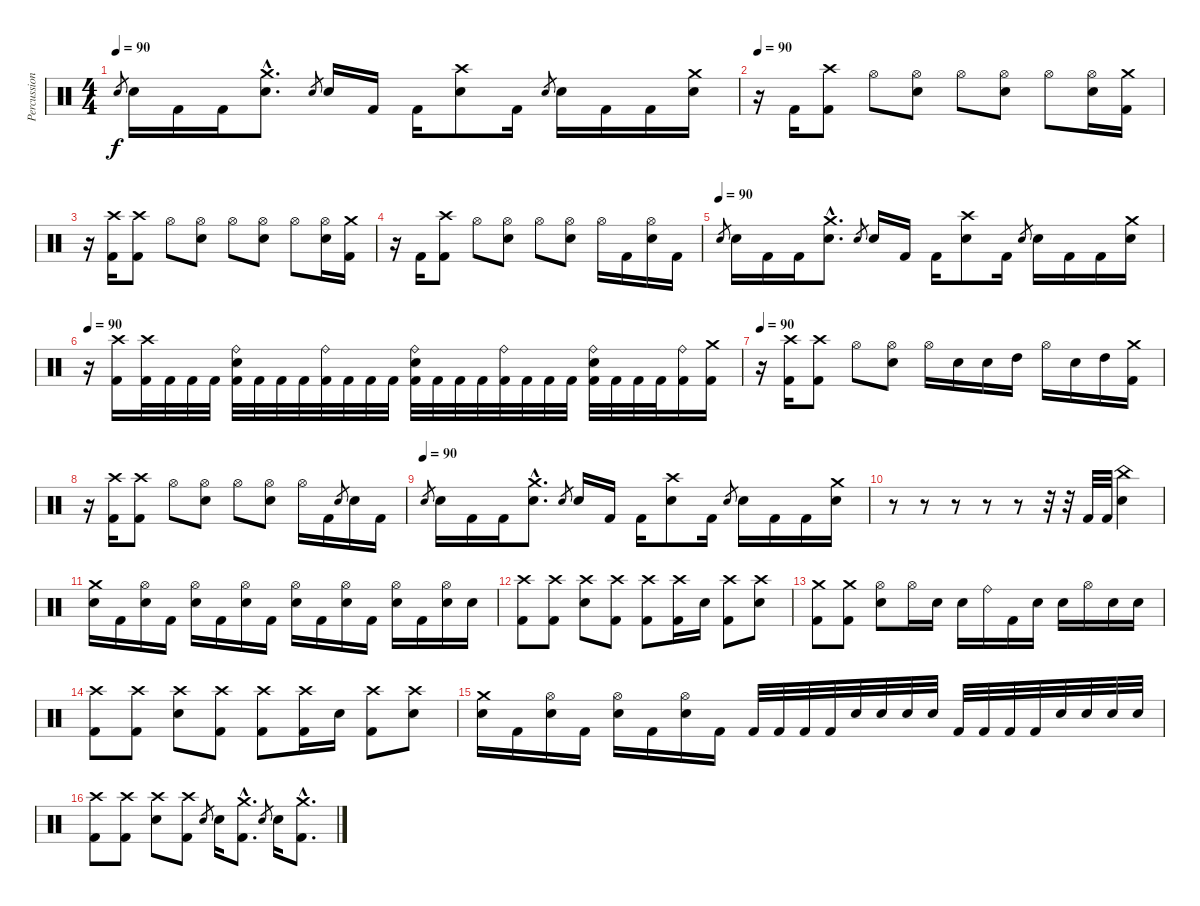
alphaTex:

\track ("Percussion" "Percussion") {instrument percussion}
\staff {score}
\articulation defaults
\ts (4 4)
\tempo 90
\clef neutral
\ks c "Electric Snare (hit)".8{gr dy f} "Electric Snare (hit)".16 "Kick (hit) 2".16 "Kick (hit) 2".16
("Crash medium (hit)"{hac} "Electric Snare (hit)"{hac}).8{d} "Electric Snare (hit)".8{gr} "Electric Snare (hit)".16 "Kick (hit) 2".16 "Kick (hit) 2".16 ("Crash high (hit)" "Electric Snare (hit)").8 "Kick (hit) 2".16 "Electric Snare (hit)".8{gr} "Electric Snare (hit)".16 "Kick (hit) 2".16 "Kick (hit) 2".16 ("Crash medium (hit)" "Electric Snare (hit)").16 |
\tempo 90
r.16 "Kick (hit) 2".16 ("Crash high (hit)" "Kick (hit) 2").8 "Hi-Hat (open)".8 ("Hi-Hat (open)" "Electric Snare (hit)").8 "Hi-Hat (open)".8 ("Hi-Hat (open)" "Electric Snare (hit)").8 "Hi-Hat (open)".8 ("Hi-Hat (open)" "Electric Snare (hit)").16 ("Crash medium (hit)" "Kick (hit) 2").16 |
r.16 ("Crash high (hit)" "Kick (hit) 2").16 ("Crash high (hit)" "Kick (hit) 2").8 "Hi-Hat (open)".8 ("Hi-Hat (open)" "Electric Snare (hit)").8 "Hi-Hat (open)".8 ("Hi-Hat (open)" "Electric Snare (hit)").8 "Hi-Hat (open)".8 ("Hi-Hat (open)" "Electric Snare (hit)").16 ("Crash medium (hit)" "Kick (hit) 2").16 |
r.16 "Kick (hit) 2".16 ("Crash high (hit)" "Kick (hit) 2").8 "Hi-Hat (open)".8 ("Hi-Hat (open)" "Electric Snare (hit)").8 "Hi-Hat (open)".8 ("Hi-Hat (open)" "Electric Snare (hit)").8 "Hi-Hat (open)".16 "Kick (hit) 2".16 ("Hi-Hat (open)" "Electric Snare (hit)").16 "Kick (hit) 2".16 |
\tempo (90)
"Electric Snare (hit)".8{gr} "Electric Snare (hit)".16 "Kick (hit) 2".16 "Kick (hit) 2".16 ("Crash medium (hit)"{hac} "Electric Snare (hit)"{hac}).8{d} "Electric Snare (hit)".8{gr} "Electric Snare (hit)".16 "Kick (hit) 2".16 "Kick (hit) 2".16 ("Crash high (hit)" "Electric Snare (hit)").8 "Kick (hit) 2".16 "Electric Snare (hit)".8{gr} "Electric Snare (hit)".16 "Kick (hit) 2".16 "Kick (hit) 2".16 ("Crash medium (hit)" "Electric Snare (hit)").16 |
\tempo 90
r.16 ("Crash high (hit)" "Kick (hit) 2").16 ("Crash high (hit)" "Kick (hit) 2").32 "Kick (hit) 2".32 "Kick (hit) 2".32 "Kick (hit) 2".32 ("Ride (bell)" "Electric Snare (hit)" "Kick (hit) 2").32 "Kick (hit) 2".32 "Kick (hit) 2".32 "Kick (hit) 2".32 ("Ride (bell)" "Kick (hit) 2").32 "Kick (hit) 2".32 "Kick (hit) 2".32 "Kick (hit) 2".32 ("Ride (bell)" "Electric Snare (hit)" "Kick (hit) 2").32 "Kick (hit) 2".32 "Kick (hit) 2".32 "Kick (hit) 2".32 ("Ride (bell)" "Kick (hit) 2").32 "Kick (hit) 2".32 "Kick (hit) 2".32 "Kick (hit) 2".32 ("Ride (bell)" "Electric Snare (hit)" "Kick (hit) 2").32 "Kick (hit) 2".32 "Kick (hit) 2".32 "Kick (hit) 2".32 ("Ride (bell)" "Kick (hit) 2").16 ("Crash medium (hit)" "Kick (hit) 2").16 |
\tempo 90
r.16 ("Crash high (hit)" "Kick (hit) 2").16 ("Crash high (hit)" "Kick (hit) 2").8 "Hi-Hat (open)".8 ("Hi-Hat (open)" "Electric Snare (hit)").8 "Hi-Hat (open)".16 "Electric Snare (hit)".16 "Electric Snare (hit)".16 "High Tom (hit)".16 "Hi-Hat (open)".16 "Electric Snare (hit)".16 "High Tom (hit)".16 ("Crash medium (hit)" "Kick (hit) 2").16 |
r.16 ("Crash high (hit)" "Kick (hit) 2").16 ("Crash high (hit)" "Kick (hit) 2").8 "Hi-Hat (open)".8 ("Hi-Hat (open)" "Electric Snare (hit)").8 "Hi-Hat (open)".8 ("Hi-Hat (open)" "Electric Snare (hit)").8 "Hi-Hat (open)".16 "Kick (hit) 2".16 "Electric Snare (hit)".8{gr} "Electric Snare (hit)".16 "Kick (hit) 2".16 |
\tempo (90)
"Electric Snare (hit)".8{gr} "Electric Snare (hit)".16 "Kick (hit) 2".16 "Kick (hit) 2".16 ("Crash medium (hit)"{hac} "Electric Snare (hit)"{hac}).8{d} "Electric Snare (hit)".8{gr} "Electric Snare (hit)".16 "Kick (hit) 2".16 "Kick (hit) 2".16 ("Crash high (hit)" "Electric Snare (hit)").8 "Kick (hit) 2".16 "Electric Snare (hit)".8{gr} "Electric Snare (hit)".16 "Kick (hit) 2".16 "Kick (hit) 2".16 ("Crash medium (hit)" "Electric Snare (hit)").16 |
r.8 r.8 r.8 r.8 r.8 r.32 r.32 "Kick (hit) 2".32 "Kick (hit) 2".32 ("China (hit)" "Electric Snare (hit)").4 |
("Crash medium (hit)" "Electric Snare (hit)").16 "Kick (hit) 2".16 ("Hi-Hat (open)" "Electric Snare (hit)").16 "Kick (hit) 2".16 ("Hi-Hat (open)" "Electric Snare (hit)").16 "Kick (hit) 2".16 ("Hi-Hat (open)" "Electric Snare (hit)").16 "Kick (hit) 2".16 ("Hi-Hat (open)" "Electric Snare (hit)").16 "Kick (hit) 2".16 ("Hi-Hat (open)" "Electric Snare (hit)").16 "Kick (hit) 2".16 ("Hi-Hat (open)" "Electric Snare (hit)").16 "Kick (hit) 2".16 ("Hi-Hat (open)" "Electric Snare (hit)").16 "Electric Snare (hit)".16 |
("Crash high (hit)" "Kick (hit) 2").8 ("Crash high (hit)" "Kick (hit) 2").8 ("Crash high (hit)" "Electric Snare (hit)").8 ("Crash high (hit)" "Kick (hit) 2").8 ("Crash high (hit)" "Kick (hit) 2").8 ("Crash high (hit)" "Kick (hit) 2").16 "Electric Snare (hit)".16 ("Crash high (hit)" "Kick (hit) 2").8 ("Crash high (hit)" "Electric Snare (hit)").8 |
("Crash medium (hit)" "Kick (hit) 2").8 ("Crash medium (hit)" "Kick (hit) 2").8 ("Hi-Hat (open)" "Electric Snare (hit)").8 "Hi-Hat (open)".16 "Electric Snare (hit)".16 "Electric Snare (hit)".16 "Ride (bell)".16 "Kick (hit) 2".16 "Electric Snare (hit)".16 "Electric Snare (hit)".16 "Hi-Hat (open)".16 "Electric Snare (hit)".16 "Electric Snare (hit)".16 |
("Crash high (hit)" "Kick (hit) 2").8 ("Crash high (hit)" "Kick (hit) 2").8 ("Crash high (hit)" "Electric Snare (hit)").8 ("Crash high (hit)" "Kick (hit) 2").8 ("Crash high (hit)" "Kick (hit) 2").8 ("Crash high (hit)" "Kick (hit) 2").16 "Electric Snare (hit)".16 ("Crash high (hit)" "Kick (hit) 2").8 ("Crash high (hit)" "Electric Snare (hit)").8 |
("Crash medium (hit)" "Electric Snare (hit)").16 "Kick (hit) 2".16 ("Hi-Hat (open)" "Electric Snare (hit)").16 "Kick (hit) 2".16 ("Hi-Hat (open)" "Electric Snare (hit)").16 "Kick (hit) 2".16 ("Hi-Hat (open)" "Electric Snare (hit)").16 "Kick (hit) 2".16 "Kick (hit) 2".32 "Kick (hit) 2".32 "Kick (hit) 2".32 "Kick (hit) 2".32 "Electric Snare (hit)".32 "Electric Snare (hit)".32 "Electric Snare (hit)".32 "Electric Snare (hit)".32 "Kick (hit) 2".32 "Kick (hit) 2".32 "Kick (hit) 2".32 "Kick (hit) 2".32 "Electric Snare (hit)".32 "Electric Snare (hit)".32 "Electric Snare (hit)".32 "Electric Snare (hit)".32 |
("Crash high (hit)" "Kick (hit) 2").8 ("Crash high (hit)" "Kick (hit) 2").8 ("Crash high (hit)" "Electric Snare (hit)").8 ("Crash high (hit)" "Kick (hit) 2").8 "Electric Snare (hit)".8{gr} "Electric Snare (hit)".16 ("Crash medium (hit)"{hac} "Kick (hit) 2"{hac}).8{d} "Electric Snare (hit)".8{gr} "Electric Snare (hit)".16 ("Crash medium (hit)"{hac} "Kick (hit) 2"{hac}).8{d}
